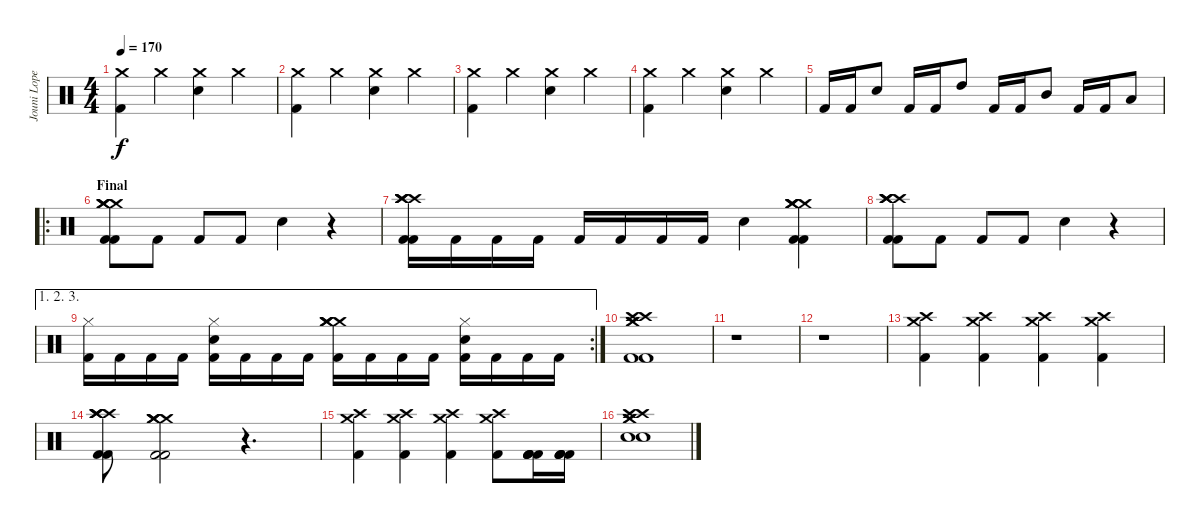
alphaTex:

\track ("Jouni Lopez (Bateria) 17 años" "Jouni Lope") {instrument percussion}
\staff {score}
\articulation defaults
\ts (4 4)
\tempo 170
\clef neutral
\ks c
("Crash medium (hit)" "Kick (hit) 2").4{dy f} "Crash medium (hit)".4 ("Crash medium (hit)" "Snare (hit) 2").4 "Crash medium (hit)".4 |
("Crash medium (hit)" "Kick (hit) 2").4 "Crash medium (hit)".4 ("Crash medium (hit)" "Snare (hit) 2").4 "Crash medium (hit)".4 |
("Crash medium (hit)" "Kick (hit) 2").4 "Crash medium (hit)".4 ("Crash medium (hit)" "Snare (hit) 2").4 "Crash medium (hit)".4 |
("Crash medium (hit)" "Kick (hit) 2").4 "Crash medium (hit)".4 ("Crash medium (hit)" "Snare (hit) 2").4 "Crash medium (hit)".4 |
"Kick (hit) 2".16 "Kick (hit) 2".16 "Snare (hit) 2".8 "Kick (hit) 2".16 "Kick (hit) 2".16 "High Tom (hit)".8 "Kick (hit) 2".16 "Kick (hit) 2".16 "Mid Tom (hit)".8 "Kick (hit) 2".16 "Kick (hit) 2".16 "Low Tom (hit)".8 |
\ro
\section ("" "Final")
("Kick (hit) 2" "Crash medium (hit)" "Crash medium (hit)" "Crash medium (hit)" "Crash medium (hit)" "Kick (hit) 2").8 "Kick (hit) 2".8 "Kick (hit) 2".8 "Kick (hit) 2".8 "Snare (hit) 2".4 r.4 |
("Kick (hit) 2" "Crash high (hit)" "Crash high (hit)" "Crash high (hit)" "Crash high (hit)" "Kick (hit) 2").16 "Kick (hit) 2".16 "Kick (hit) 2".16 "Kick (hit) 2".16 "Kick (hit) 2".16 "Kick (hit) 2".16 "Kick (hit) 2".16 "Kick (hit) 2".16 "Snare (hit) 2".4 ("Kick (hit) 2" "Crash medium (hit)" "Crash medium (hit)" "Crash medium (hit)" "Crash medium (hit)" "Kick (hit) 2").4 |
("Kick (hit) 2" "Crash high (hit)" "Crash high (hit)" "Crash high (hit)" "Crash high (hit)" "Kick (hit) 2").8 "Kick (hit) 2".8 "Kick (hit) 2".8 "Kick (hit) 2".8 "Snare (hit) 2".4 r.4 |
\ae (1 2 3)
\rc 2
("Kick (hit) 2" "Hi-Hat (closed)").16 "Kick (hit) 2".16 "Kick (hit) 2".16 "Kick (hit) 2".16 ("Kick (hit) 2" "Hi-Hat (closed)" "Snare (hit) 2").16 "Kick (hit) 2".16 "Kick (hit) 2".16 "Kick (hit) 2".16 ("Kick (hit) 2" "Crash medium (hit)" "Crash medium (hit)" "Crash medium (hit)" "Crash medium (hit)").16 "Kick (hit) 2".16 "Kick (hit) 2".16 "Kick (hit) 2".16 ("Kick (hit) 2" "Hi-Hat (closed)" "Snare (hit) 2").16 "Kick (hit) 2".16 "Kick (hit) 2".16 "Kick (hit) 2".16 |
("Kick (hit) 2" "Crash medium (hit)" "Crash medium (hit)" "Crash high (hit)" "Crash high (hit)" "Kick (hit) 2").1 |
r.1 |
r.1 |
("Kick (hit) 2" "Crash medium (hit)" "Crash high (hit)").4 ("Kick (hit) 2" "Crash medium (hit)" "Crash high (hit)").4 ("Kick (hit) 2" "Crash medium (hit)" "Crash high (hit)").4 ("Kick (hit) 2" "Crash medium (hit)" "Crash high (hit)").4 |
("Kick (hit) 2" "Crash high (hit)" "Crash high (hit)" "Crash high (hit)" "Crash high (hit)" "Kick (hit) 2").8 ("Kick (hit) 2" "Crash medium (hit)" "Crash medium (hit)" "Crash medium (hit)" "Crash medium (hit)" "Kick (hit) 2").2 r.4{d} |
("Kick (hit) 2" "Crash medium (hit)" "Crash high (hit)").4 ("Kick (hit) 2" "Crash medium (hit)" "Crash high (hit)").4 ("Kick (hit) 2" "Crash medium (hit)" "Crash high (hit)").4 ("Kick (hit) 2" "Crash medium (hit)" "Crash high (hit)").8 ("Kick (hit) 2" "Kick (hit) 2" "Kick (hit) 2" "Kick (hit) 2").16 ("Kick (hit) 2" "Kick (hit) 2" "Kick (hit) 2" "Kick (hit) 2").16 |
("Snare (hit) 2" "Snare (hit) 2" "Crash medium (hit)" "Crash medium (hit)" "Crash high (hit)" "Crash high (hit)").1
